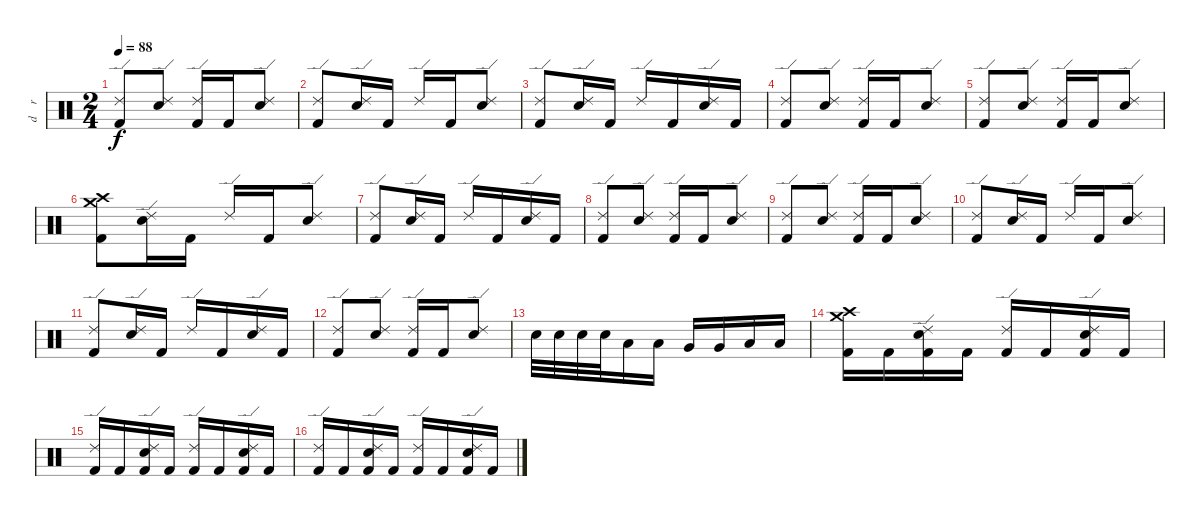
\track ("d    r     u    m    s" "d    r    ") {instrument percussion}
\staff {score}
\articulation defaults
\ts (2 4)
\tempo 88
\clef neutral
\ks c
("Ride (edge) 2" "Kick (hit) 2").8{dy f} ("Ride (edge) 2" "Electric Snare (hit)").8 ("Ride (edge) 2" "Kick (hit) 2").16 "Kick (hit) 2".16 ("Ride (edge) 2" "Electric Snare (hit)").8 |
("Ride (edge) 2" "Kick (hit) 2").8 ("Ride (edge) 2" "Electric Snare (hit)").16 "Kick (hit) 2".16 "Ride (edge) 2".16 "Kick (hit) 2".16 ("Ride (edge) 2" "Electric Snare (hit)").8 |
("Ride (edge) 2" "Kick (hit) 2").8 ("Ride (edge) 2" "Electric Snare (hit)").16 "Kick (hit) 2".16 "Ride (edge) 2".16 "Kick (hit) 2".16 ("Ride (edge) 2" "Electric Snare (hit)").16 "Kick (hit) 2".16 |
("Ride (edge) 2" "Kick (hit) 2").8 ("Ride (edge) 2" "Electric Snare (hit)").8 ("Ride (edge) 2" "Kick (hit) 2").16 "Kick (hit) 2".16 ("Ride (edge) 2" "Electric Snare (hit)").8 |
("Ride (edge) 2" "Kick (hit) 2").8 ("Ride (edge) 2" "Electric Snare (hit)").8 ("Ride (edge) 2" "Kick (hit) 2").16 "Kick (hit) 2".16 ("Ride (edge) 2" "Electric Snare (hit)").8 |
("Crash high (hit)" "Crash medium (hit)" "Kick (hit) 2").8 ("Ride (edge) 2" "Electric Snare (hit)").16 "Kick (hit) 2".16 "Ride (edge) 2".16 "Kick (hit) 2".16 ("Ride (edge) 2" "Electric Snare (hit)").8 |
("Ride (edge) 2" "Kick (hit) 2").8 ("Ride (edge) 2" "Electric Snare (hit)").16 "Kick (hit) 2".16 "Ride (edge) 2".16 "Kick (hit) 2".16 ("Ride (edge) 2" "Electric Snare (hit)").16 "Kick (hit) 2".16 |
("Ride (edge) 2" "Kick (hit) 2").8 ("Ride (edge) 2" "Electric Snare (hit)").8 ("Ride (edge) 2" "Kick (hit) 2").16 "Kick (hit) 2".16 ("Ride (edge) 2" "Electric Snare (hit)").8 |
("Ride (edge) 2" "Kick (hit) 2").8 ("Ride (edge) 2" "Electric Snare (hit)").8 ("Ride (edge) 2" "Kick (hit) 2").16 "Kick (hit) 2".16 ("Ride (edge) 2" "Electric Snare (hit)").8 |
("Ride (edge) 2" "Kick (hit) 2").8 ("Ride (edge) 2" "Electric Snare (hit)").16 "Kick (hit) 2".16 "Ride (edge) 2".16 "Kick (hit) 2".16 ("Ride (edge) 2" "Electric Snare (hit)").8 |
("Ride (edge) 2" "Kick (hit) 2").8 ("Ride (edge) 2" "Electric Snare (hit)").16 "Kick (hit) 2".16 "Ride (edge) 2".16 "Kick (hit) 2".16 ("Ride (edge) 2" "Electric Snare (hit)").16 "Kick (hit) 2".16 |
("Ride (edge) 2" "Kick (hit) 2").8 ("Ride (edge) 2" "Electric Snare (hit)").8 ("Ride (edge) 2" "Kick (hit) 2").16 "Kick (hit) 2".16 ("Ride (edge) 2" "Electric Snare (hit)").8 |
"Electric Snare (hit)".32 "Electric Snare (hit)".32 "Electric Snare (hit)".32 "Electric Snare (hit)".32 "Low Tom (hit)".16 "Low Tom (hit)".16 "Very Low Tom (hit)".16 "Very Low Tom (hit)".16 "Low Floor Tom (hit)".16 "Low Floor Tom (hit)".16 |
("Crash high (hit)" "Crash medium (hit)" "Kick (hit) 2").16 "Kick (hit) 2".16 ("Ride (edge) 2" "Electric Snare (hit)" "Kick (hit) 2").16 "Kick (hit) 2".16 ("Ride (edge) 2" "Kick (hit) 2").16 "Kick (hit) 2".16 ("Ride (edge) 2" "Electric Snare (hit)" "Kick (hit) 2").16 "Kick (hit) 2".16 |
("Ride (edge) 2" "Kick (hit) 2").16 "Kick (hit) 2".16 ("Ride (edge) 2" "Electric Snare (hit)" "Kick (hit) 2").16 "Kick (hit) 2".16 ("Ride (edge) 2" "Kick (hit) 2").16 "Kick (hit) 2".16 ("Ride (edge) 2" "Electric Snare (hit)" "Kick (hit) 2").16 "Kick (hit) 2".16 |
("Ride (edge) 2" "Kick (hit) 2").16 "Kick (hit) 2".16 ("Ride (edge) 2" "Electric Snare (hit)" "Kick (hit) 2").16 "Kick (hit) 2".16 ("Ride (edge) 2" "Kick (hit) 2").16 "Kick (hit) 2".16 ("Ride (edge) 2" "Electric Snare (hit)" "Kick (hit) 2").16 "Kick (hit) 2".16
